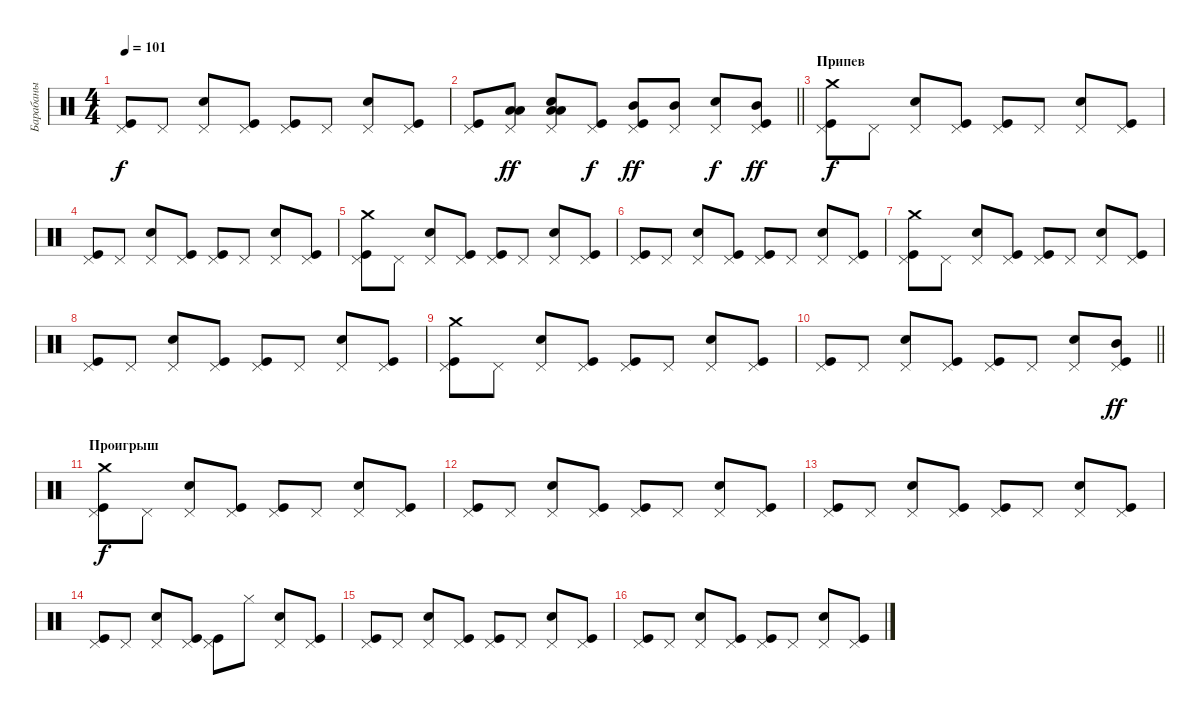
\track ("Барабаны" "Барабаны") {instrument percussion}
\staff {score}
\articulation defaults
\ts (4 4)
\tempo 101
\clef neutral
\ks c
("Kick (hit)" "Pedal Hi-Hat (hit)").8{dy f} "Pedal Hi-Hat (hit)".8 ("Snare (hit) 2" "Pedal Hi-Hat (hit)").8 ("Kick (hit)" "Pedal Hi-Hat (hit)").8 ("Kick (hit)" "Pedal Hi-Hat (hit)").8 "Pedal Hi-Hat (hit)".8 ("Snare (hit) 2" "Pedal Hi-Hat (hit)").8 ("Kick (hit)" "Pedal Hi-Hat (hit)").8 |
\barLineRight lightlight
("Kick (hit)" "Pedal Hi-Hat (hit)").8 ("Pedal Hi-Hat (hit)" "Low Tom (hit)" "Low Tom (hit)").8{dy ff} ("Snare (hit) 2" "Pedal Hi-Hat (hit)" "Low Tom (hit)" "Low Tom (hit)").8 ("Kick (hit)" "Pedal Hi-Hat (hit)").8{dy f} ("Kick (hit)" "Pedal Hi-Hat (hit)" "Mid Tom (hit)").8{dy ff} ("Pedal Hi-Hat (hit)" "Mid Tom (hit)").8 ("Snare (hit) 2" "Pedal Hi-Hat (hit)").8{dy f} ("Kick (hit)" "Pedal Hi-Hat (hit)" "Mid Tom (hit)").8{dy ff} |
\section ("" "Припев")
("Kick (hit)" "Pedal Hi-Hat (hit)" "Crash medium (hit)").8{dy f} "Pedal Hi-Hat (hit)".8 ("Snare (hit) 2" "Pedal Hi-Hat (hit)").8 ("Kick (hit)" "Pedal Hi-Hat (hit)").8 ("Kick (hit)" "Pedal Hi-Hat (hit)").8 "Pedal Hi-Hat (hit)".8 ("Snare (hit) 2" "Pedal Hi-Hat (hit)").8 ("Kick (hit)" "Pedal Hi-Hat (hit)").8 |
("Kick (hit)" "Pedal Hi-Hat (hit)").8 "Pedal Hi-Hat (hit)".8 ("Snare (hit) 2" "Pedal Hi-Hat (hit)").8 ("Kick (hit)" "Pedal Hi-Hat (hit)").8 ("Kick (hit)" "Pedal Hi-Hat (hit)").8 "Pedal Hi-Hat (hit)".8 ("Snare (hit) 2" "Pedal Hi-Hat (hit)").8 ("Kick (hit)" "Pedal Hi-Hat (hit)").8 |
("Kick (hit)" "Pedal Hi-Hat (hit)" "Crash medium (hit)").8 "Pedal Hi-Hat (hit)".8 ("Snare (hit) 2" "Pedal Hi-Hat (hit)").8 ("Kick (hit)" "Pedal Hi-Hat (hit)").8 ("Kick (hit)" "Pedal Hi-Hat (hit)").8 "Pedal Hi-Hat (hit)".8 ("Snare (hit) 2" "Pedal Hi-Hat (hit)").8 ("Kick (hit)" "Pedal Hi-Hat (hit)").8 |
("Kick (hit)" "Pedal Hi-Hat (hit)").8 "Pedal Hi-Hat (hit)".8 ("Snare (hit) 2" "Pedal Hi-Hat (hit)").8 ("Kick (hit)" "Pedal Hi-Hat (hit)").8 ("Kick (hit)" "Pedal Hi-Hat (hit)").8 "Pedal Hi-Hat (hit)".8 ("Snare (hit) 2" "Pedal Hi-Hat (hit)").8 ("Kick (hit)" "Pedal Hi-Hat (hit)").8 |
("Kick (hit)" "Pedal Hi-Hat (hit)" "Crash medium (hit)").8 "Pedal Hi-Hat (hit)".8 ("Snare (hit) 2" "Pedal Hi-Hat (hit)").8 ("Kick (hit)" "Pedal Hi-Hat (hit)").8 ("Kick (hit)" "Pedal Hi-Hat (hit)").8 "Pedal Hi-Hat (hit)".8 ("Snare (hit) 2" "Pedal Hi-Hat (hit)").8 ("Kick (hit)" "Pedal Hi-Hat (hit)").8 |
("Kick (hit)" "Pedal Hi-Hat (hit)").8 "Pedal Hi-Hat (hit)".8 ("Snare (hit) 2" "Pedal Hi-Hat (hit)").8 ("Kick (hit)" "Pedal Hi-Hat (hit)").8 ("Kick (hit)" "Pedal Hi-Hat (hit)").8 "Pedal Hi-Hat (hit)".8 ("Snare (hit) 2" "Pedal Hi-Hat (hit)").8 ("Kick (hit)" "Pedal Hi-Hat (hit)").8 |
("Kick (hit)" "Pedal Hi-Hat (hit)" "Crash medium (hit)").8 "Pedal Hi-Hat (hit)".8 ("Snare (hit) 2" "Pedal Hi-Hat (hit)").8 ("Kick (hit)" "Pedal Hi-Hat (hit)").8 ("Kick (hit)" "Pedal Hi-Hat (hit)").8 "Pedal Hi-Hat (hit)".8 ("Snare (hit) 2" "Pedal Hi-Hat (hit)").8 ("Kick (hit)" "Pedal Hi-Hat (hit)").8 |
\barLineRight lightlight
("Kick (hit)" "Pedal Hi-Hat (hit)").8 "Pedal Hi-Hat (hit)".8 ("Snare (hit) 2" "Pedal Hi-Hat (hit)").8 ("Kick (hit)" "Pedal Hi-Hat (hit)").8 ("Kick (hit)" "Pedal Hi-Hat (hit)").8 "Pedal Hi-Hat (hit)".8 ("Snare (hit) 2" "Pedal Hi-Hat (hit)").8 ("Kick (hit)" "Pedal Hi-Hat (hit)" "Mid Tom (hit)").8{dy ff} |
\section ("" "Проигрыш")
("Kick (hit)" "Pedal Hi-Hat (hit)" "Crash medium (hit)").8{dy f} "Pedal Hi-Hat (hit)".8 ("Snare (hit) 2" "Pedal Hi-Hat (hit)").8 ("Kick (hit)" "Pedal Hi-Hat (hit)").8 ("Kick (hit)" "Pedal Hi-Hat (hit)").8 "Pedal Hi-Hat (hit)".8 ("Snare (hit) 2" "Pedal Hi-Hat (hit)").8 ("Kick (hit)" "Pedal Hi-Hat (hit)").8 |
("Kick (hit)" "Pedal Hi-Hat (hit)").8 "Pedal Hi-Hat (hit)".8 ("Snare (hit) 2" "Pedal Hi-Hat (hit)").8 ("Kick (hit)" "Pedal Hi-Hat (hit)").8 ("Kick (hit)" "Pedal Hi-Hat (hit)").8 "Pedal Hi-Hat (hit)".8 ("Snare (hit) 2" "Pedal Hi-Hat (hit)").8 ("Kick (hit)" "Pedal Hi-Hat (hit)").8 |
("Kick (hit)" "Pedal Hi-Hat (hit)").8 "Pedal Hi-Hat (hit)".8 ("Snare (hit) 2" "Pedal Hi-Hat (hit)").8 ("Kick (hit)" "Pedal Hi-Hat (hit)").8 ("Kick (hit)" "Pedal Hi-Hat (hit)").8 "Pedal Hi-Hat (hit)".8 ("Snare (hit) 2" "Pedal Hi-Hat (hit)").8 ("Kick (hit)" "Pedal Hi-Hat (hit)").8 |
("Kick (hit)" "Pedal Hi-Hat (hit)").8 "Pedal Hi-Hat (hit)".8 ("Snare (hit) 2" "Pedal Hi-Hat (hit)").8 ("Kick (hit)" "Pedal Hi-Hat (hit)").8 ("Kick (hit)" "Pedal Hi-Hat (hit)").8 "Hi-Hat (closed)".8 ("Snare (hit) 2" "Pedal Hi-Hat (hit)").8 ("Kick (hit)" "Pedal Hi-Hat (hit)").8 |
("Kick (hit)" "Pedal Hi-Hat (hit)").8 "Pedal Hi-Hat (hit)".8 ("Snare (hit) 2" "Pedal Hi-Hat (hit)").8 ("Kick (hit)" "Pedal Hi-Hat (hit)").8 ("Kick (hit)" "Pedal Hi-Hat (hit)").8 "Pedal Hi-Hat (hit)".8 ("Snare (hit) 2" "Pedal Hi-Hat (hit)").8 ("Kick (hit)" "Pedal Hi-Hat (hit)").8 |
("Kick (hit)" "Pedal Hi-Hat (hit)").8 "Pedal Hi-Hat (hit)".8 ("Snare (hit) 2" "Pedal Hi-Hat (hit)").8 ("Kick (hit)" "Pedal Hi-Hat (hit)").8 ("Kick (hit)" "Pedal Hi-Hat (hit)").8 "Pedal Hi-Hat (hit)".8 ("Snare (hit) 2" "Pedal Hi-Hat (hit)").8 ("Kick (hit)" "Pedal Hi-Hat (hit)").8
